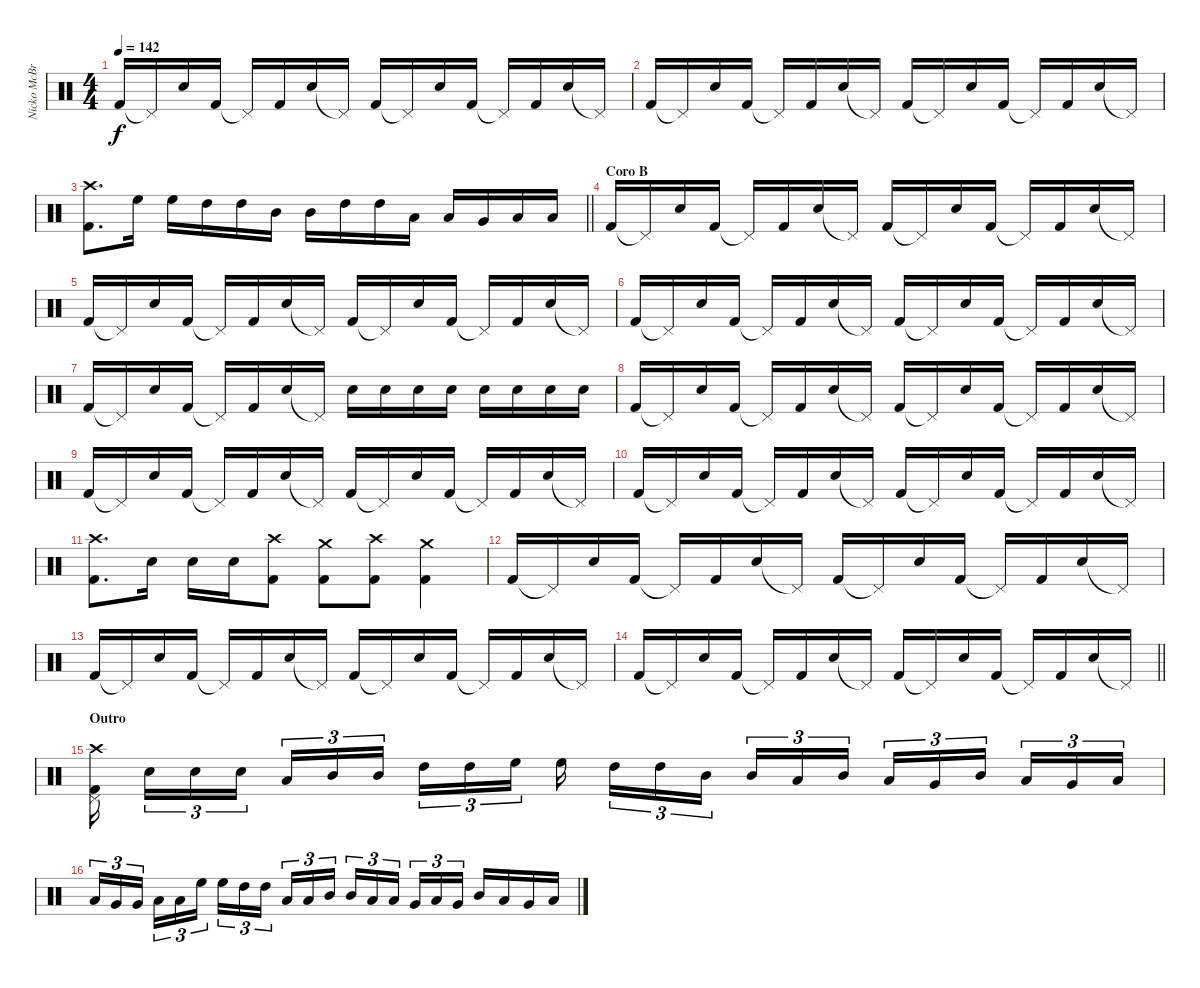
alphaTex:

\track ("Nicko McBrain" "Nicko McBr") {instrument percussion}
\staff {score}
\articulation defaults
\ts (4 4)
\tempo 142
\clef neutral
\ks c "Kick (hit) 2".16{dy f} "Pedal Hi-Hat (hit)"{t}.16 "Snare (hit) 2".16 "Kick (hit) 2".16 "Pedal Hi-Hat (hit)"{t}.16 "Kick (hit) 2".16 "Snare (hit) 2".16 "Pedal Hi-Hat (hit)"{t}.16 "Kick (hit) 2".16 "Pedal Hi-Hat (hit)"{t}.16 "Snare (hit) 2".16 "Kick (hit) 2".16 "Pedal Hi-Hat (hit)"{t}.16 "Kick (hit) 2".16 "Snare (hit) 2".16 "Pedal Hi-Hat (hit)"{t}.16
|
"Kick (hit) 2".16 "Pedal Hi-Hat (hit)"{t}.16 "Snare (hit) 2".16 "Kick (hit) 2".16 "Pedal Hi-Hat (hit)"{t}.16 "Kick (hit) 2".16 "Snare (hit) 2".16 "Pedal Hi-Hat (hit)"{t}.16 "Kick (hit) 2".16 "Pedal Hi-Hat (hit)"{t}.16 "Snare (hit) 2".16 "Kick (hit) 2".16 "Pedal Hi-Hat (hit)"{t}.16 "Kick (hit) 2".16 "Snare (hit) 2".16 "Pedal Hi-Hat (hit)"{t}.16 |
\barLineRight lightlight
("Kick (hit) 2" "Crash high (hit)").8{d} "High Floor Tom (hit)".16 "High Floor Tom (hit)".16 "High Tom (hit)".16 "High Tom (hit)".16 "Mid Tom (hit)".16 "Mid Tom (hit)".16 "High Tom (hit)".16 "High Tom (hit)".16 "Low Tom (hit)".16 "Low Tom (hit)".16 "Very Low Tom (hit)".16 "Low Floor Tom (hit)".16 "Low Floor Tom (hit)".16 |
\section ("" "Coro B")
"Kick (hit) 2".16 "Pedal Hi-Hat (hit)"{t}.16 "Snare (hit) 2".16 "Kick (hit) 2".16 "Pedal Hi-Hat (hit)"{t}.16 "Kick (hit) 2".16 "Snare (hit) 2".16 "Pedal Hi-Hat (hit)"{t}.16 "Kick (hit) 2".16 "Pedal Hi-Hat (hit)"{t}.16 "Snare (hit) 2".16 "Kick (hit) 2".16 "Pedal Hi-Hat (hit)"{t}.16 "Kick (hit) 2".16 "Snare (hit) 2".16 "Pedal Hi-Hat (hit)"{t}.16 |
"Kick (hit) 2".16 "Pedal Hi-Hat (hit)"{t}.16 "Snare (hit) 2".16 "Kick (hit) 2".16 "Pedal Hi-Hat (hit)"{t}.16 "Kick (hit) 2".16 "Snare (hit) 2".16 "Pedal Hi-Hat (hit)"{t}.16 "Kick (hit) 2".16 "Pedal Hi-Hat (hit)"{t}.16 "Snare (hit) 2".16 "Kick (hit) 2".16 "Pedal Hi-Hat (hit)"{t}.16 "Kick (hit) 2".16 "Snare (hit) 2".16 "Pedal Hi-Hat (hit)"{t}.16 |
"Kick (hit) 2".16 "Pedal Hi-Hat (hit)"{t}.16 "Snare (hit) 2".16 "Kick (hit) 2".16 "Pedal Hi-Hat (hit)"{t}.16 "Kick (hit) 2".16 "Snare (hit) 2".16 "Pedal Hi-Hat (hit)"{t}.16 "Kick (hit) 2".16 "Pedal Hi-Hat (hit)"{t}.16 "Snare (hit) 2".16 "Kick (hit) 2".16 "Pedal Hi-Hat (hit)"{t}.16 "Kick (hit) 2".16 "Snare (hit) 2".16 "Pedal Hi-Hat (hit)"{t}.16 |
"Kick (hit) 2".16 "Pedal Hi-Hat (hit)"{t}.16 "Snare (hit) 2".16 "Kick (hit) 2".16 "Pedal Hi-Hat (hit)"{t}.16 "Kick (hit) 2".16 "Snare (hit) 2".16 "Pedal Hi-Hat (hit)"{t}.16 "Snare (hit) 2".16 "Snare (hit) 2".16 "Snare (hit) 2".16 "Snare (hit) 2".16 "Snare (hit) 2".16 "Snare (hit) 2".16 "Snare (hit) 2".16 "Snare (hit) 2".16 |
"Kick (hit) 2".16 "Pedal Hi-Hat (hit)"{t}.16 "Snare (hit) 2".16 "Kick (hit) 2".16 "Pedal Hi-Hat (hit)"{t}.16 "Kick (hit) 2".16 "Snare (hit) 2".16 "Pedal Hi-Hat (hit)"{t}.16 "Kick (hit) 2".16 "Pedal Hi-Hat (hit)"{t}.16 "Snare (hit) 2".16 "Kick (hit) 2".16 "Pedal Hi-Hat (hit)"{t}.16 "Kick (hit) 2".16 "Snare (hit) 2".16 "Pedal Hi-Hat (hit)"{t}.16 |
"Kick (hit) 2".16 "Pedal Hi-Hat (hit)"{t}.16 "Snare (hit) 2".16 "Kick (hit) 2".16 "Pedal Hi-Hat (hit)"{t}.16 "Kick (hit) 2".16 "Snare (hit) 2".16 "Pedal Hi-Hat (hit)"{t}.16 "Kick (hit) 2".16 "Pedal Hi-Hat (hit)"{t}.16 "Snare (hit) 2".16 "Kick (hit) 2".16 "Pedal Hi-Hat (hit)"{t}.16 "Kick (hit) 2".16 "Snare (hit) 2".16 "Pedal Hi-Hat (hit)"{t}.16 |
"Kick (hit) 2".16 "Pedal Hi-Hat (hit)"{t}.16 "Snare (hit) 2".16 "Kick (hit) 2".16 "Pedal Hi-Hat (hit)"{t}.16 "Kick (hit) 2".16 "Snare (hit) 2".16 "Pedal Hi-Hat (hit)"{t}.16 "Kick (hit) 2".16 "Pedal Hi-Hat (hit)"{t}.16 "Snare (hit) 2".16 "Kick (hit) 2".16 "Pedal Hi-Hat (hit)"{t}.16 "Kick (hit) 2".16 "Snare (hit) 2".16 "Pedal Hi-Hat (hit)"{t}.16 |
("Kick (hit) 2" "Crash high (hit)").8{d} "Snare (hit) 2".16 "Snare (hit) 2".16 "Snare (hit) 2".16 ("Kick (hit) 2" "Crash high (hit)").8 ("Kick (hit) 2" "Crash medium (hit)").8 ("Kick (hit) 2" "Crash high (hit)").8 ("Kick (hit) 2" "Crash medium (hit)").4 |
"Kick (hit) 2".16 "Pedal Hi-Hat (hit)"{t}.16 "Snare (hit) 2".16 "Kick (hit) 2".16 "Pedal Hi-Hat (hit)"{t}.16 "Kick (hit) 2".16 "Snare (hit) 2".16 "Pedal Hi-Hat (hit)"{t}.16 "Kick (hit) 2".16 "Pedal Hi-Hat (hit)"{t}.16 "Snare (hit) 2".16 "Kick (hit) 2".16 "Pedal Hi-Hat (hit)"{t}.16 "Kick (hit) 2".16 "Snare (hit) 2".16 "Pedal Hi-Hat (hit)"{t}.16 |
"Kick (hit) 2".16 "Pedal Hi-Hat (hit)"{t}.16 "Snare (hit) 2".16 "Kick (hit) 2".16 "Pedal Hi-Hat (hit)"{t}.16 "Kick (hit) 2".16 "Snare (hit) 2".16 "Pedal Hi-Hat (hit)"{t}.16 "Kick (hit) 2".16 "Pedal Hi-Hat (hit)"{t}.16 "Snare (hit) 2".16 "Kick (hit) 2".16 "Pedal Hi-Hat (hit)"{t}.16 "Kick (hit) 2".16 "Snare (hit) 2".16 "Pedal Hi-Hat (hit)"{t}.16 |
\barLineRight lightlight "Kick (hit) 2".16 "Pedal Hi-Hat (hit)"{t}.16 "Snare (hit) 2".16 "Kick (hit) 2".16 "Pedal Hi-Hat (hit)"{t}.16 "Kick (hit) 2".16 "Snare (hit) 2".16 "Pedal Hi-Hat (hit)"{t}.16 "Kick (hit) 2".16 "Pedal Hi-Hat (hit)"{t}.16 "Snare (hit) 2".16 "Kick (hit) 2".16 "Pedal Hi-Hat (hit)"{t}.16 "Kick (hit) 2".16 "Snare (hit) 2".16 "Pedal Hi-Hat (hit)"{t}.16
|
\section ("" "Outro")
("Kick (hit) 2" "Pedal Hi-Hat (hit)" "Crash high (hit)").16{beam splitsecondary} "Snare (hit) 2".16{tu (3 2)} "Snare (hit) 2".16{tu (3 2)} "Snare (hit) 2".16{tu (3 2) beam splitsecondary} "Low Tom (hit)".16{tu (3 2)} "Mid Tom (hit)".16{tu (3 2)} "Mid Tom (hit)".16{tu (3 2) beam splitsecondary} "High Tom (hit)".16{tu (3 2)} "High Tom (hit)".16{tu (3 2)} "High Floor Tom (hit)".16{tu (3 2) beam splitsecondary} "High Floor Tom (hit)".16 "High Tom (hit)".16{tu (3 2)} "High Tom (hit)".16{tu (3 2)} "Mid Tom (hit)".16{tu (3 2) beam splitsecondary} "Mid Tom (hit)".16{tu (3 2)} "Low Tom (hit)".16{tu (3 2)} "Mid Tom (hit)".16{tu (3 2)} "Low Floor Tom (hit)".16{tu (3 2)} "Very Low Tom (hit)".16{tu (3 2)} "Mid Tom (hit)".16{tu (3 2) beam splitsecondary} "Low Floor Tom (hit)".16{tu (3 2)} "Very Low Tom (hit)".16{tu (3 2)} "Low Tom (hit)".16{tu (3 2)} |
"Low Tom (hit)".16{tu (3 2)} "Very Low Tom (hit)".16{tu (3 2)} "Very Low Tom (hit)".16{tu (3 2) beam splitsecondary} "Low Floor Tom (hit)".16{tu (3 2)} "Low Floor Tom (hit)".16{tu (3 2)} "High Floor Tom (hit)".16{tu (3 2)} "High Floor Tom (hit)".16{tu (3 2)} "High Tom (hit)".16{tu (3 2)} "High Tom (hit)".16{tu (3 2) beam splitsecondary} "Low Tom (hit)".16{tu (3 2)} "Low Tom (hit)".16{tu (3 2)} "Mid Tom (hit)".16{tu (3 2)} "Mid Tom (hit)".16{tu (3 2)} "Low Tom (hit)".16{tu (3 2)} "Low Tom (hit)".16{tu (3 2) beam splitsecondary} "Very Low Tom (hit)".16{tu (3 2)} "Low Floor Tom (hit)".16{tu (3 2)} "Very Low Tom (hit)".16{tu (3 2)} "Mid Tom (hit)".16 "Low Tom (hit)".16 "Very Low Tom (hit)".16 "Low Floor Tom (hit)".16
